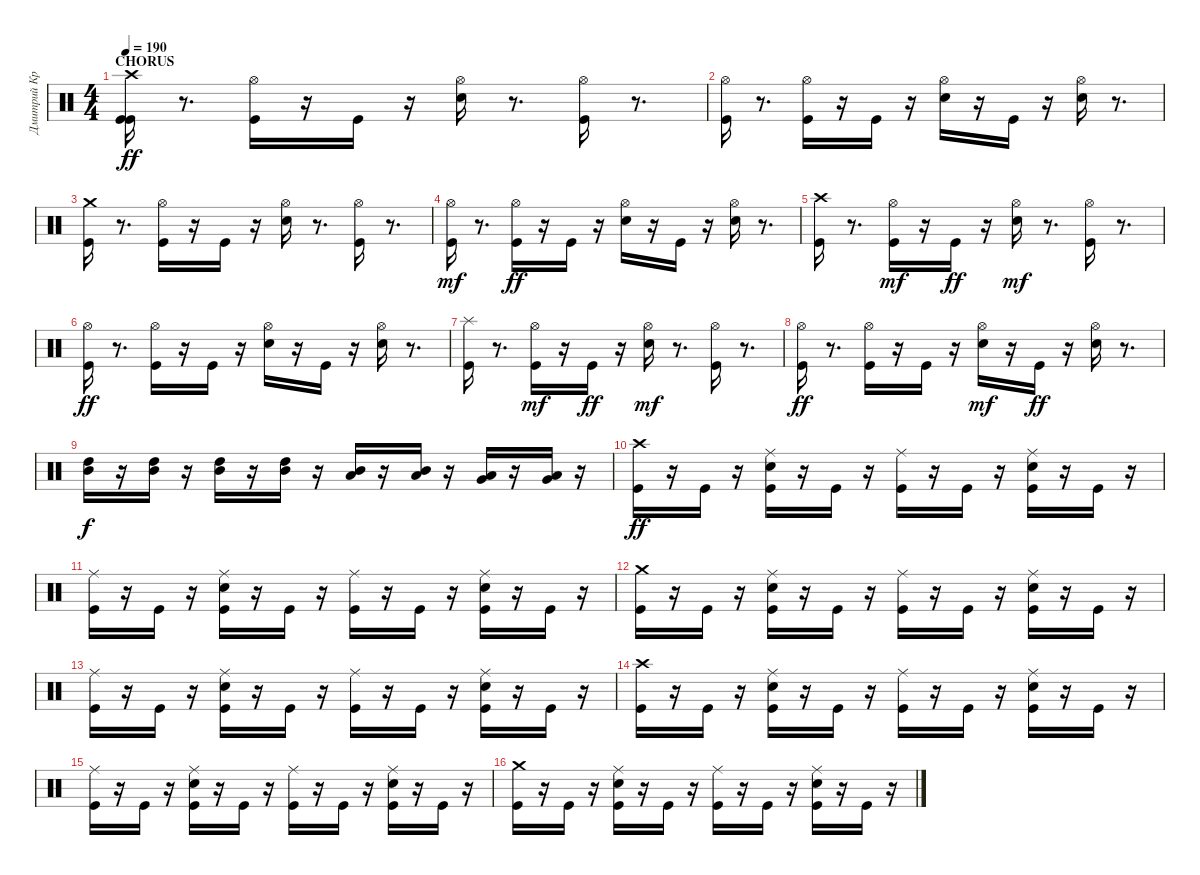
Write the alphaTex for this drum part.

\track ("Дмитрий Кривенков" "Дмитрий Кр") {instrument percussion}
\staff {score}
\articulation defaults
\ts (4 4)
\section ("" "CHORUS")
\tempo 190
\clef neutral
\ks c
("Kick (hit)" "Crash high (hit)" "Kick (hit)").16{dy ff} r.8{d} ("Hi-Hat (open)" "Kick (hit)").16 r.16 "Kick (hit)".16 r.16 ("Hi-Hat (open)" "Snare (hit) 2").16 r.8{d} ("Hi-Hat (open)" "Kick (hit)").16 r.8{d} |
("Hi-Hat (open)" "Kick (hit)").16 r.8{d} ("Hi-Hat (open)" "Kick (hit)").16 r.16 "Kick (hit)".16 r.16 ("Hi-Hat (open)" "Snare (hit) 2").16 r.16 "Kick (hit)".16 r.16 ("Hi-Hat (open)" "Snare (hit) 2").16 r.8{d} |
("Kick (hit)" "Crash medium (hit)").16 r.8{d} ("Hi-Hat (open)" "Kick (hit)").16 r.16 "Kick (hit)".16 r.16 ("Hi-Hat (open)" "Snare (hit) 2").16 r.8{d} ("Hi-Hat (open)" "Kick (hit)").16 r.8{d} |
("Kick (hit)" "Hi-Hat (open)").16{dy mf} r.8{d} ("Hi-Hat (open)" "Kick (hit)").16{dy ff} r.16 "Kick (hit)".16 r.16 ("Hi-Hat (open)" "Snare (hit) 2").16 r.16 "Kick (hit)".16 r.16 ("Hi-Hat (open)" "Snare (hit) 2").16 r.8{d} |
("Crash high (hit)" "Kick (hit)").16 r.8{d} ("Kick (hit)" "Hi-Hat (open)").16{dy mf} r.16 "Kick (hit)".16{dy ff} r.16 ("Snare (hit) 2" "Hi-Hat (open)").16{dy mf} r.8{d} ("Kick (hit)" "Hi-Hat (open)").16 r.8{d} |
("Hi-Hat (open)" "Kick (hit)").16{dy ff} r.8{d} ("Hi-Hat (open)" "Kick (hit)").16 r.16 "Kick (hit)".16 r.16 ("Hi-Hat (open)" "Snare (hit) 2").16 r.16 "Kick (hit)".16 r.16 ("Hi-Hat (open)" "Snare (hit) 2").16 r.8{d} |
("Splash (hit)" "Kick (hit)").16 r.8{d} ("Kick (hit)" "Hi-Hat (open)").16{dy mf} r.16 "Kick (hit)".16{dy ff} r.16 ("Snare (hit) 2" "Hi-Hat (open)").16{dy mf} r.8{d} ("Kick (hit)" "Hi-Hat (open)").16 r.8{d} |
("Hi-Hat (open)" "Kick (hit)").16{dy ff} r.8{d} ("Hi-Hat (open)" "Kick (hit)").16 r.16 "Kick (hit)".16 r.16 ("Snare (hit) 2" "Hi-Hat (open)").16{dy mf} r.16 "Kick (hit)".16{dy ff} r.16 ("Hi-Hat (open)" "Snare (hit) 2").16 r.8{d} |
("Mid Tom (hit)" "High Tom (hit)").16{dy f} r.16 ("Mid Tom (hit)" "High Tom (hit)").16 r.16 ("Mid Tom (hit)" "High Tom (hit)").16 r.16 ("Mid Tom (hit)" "High Tom (hit)").16 r.16 ("Low Tom (hit)" "Mid Tom (hit)").16 r.16 ("Low Tom (hit)" "Mid Tom (hit)").16 r.16 ("Very Low Tom (hit)" "Low Tom (hit)").16 r.16 ("Very Low Tom (hit)" "Low Tom (hit)").16 r.16 |
("Crash high (hit)" "Kick (hit)").16{dy ff} r.16 "Kick (hit)".16 r.16 ("Kick (hit)" "Snare (hit) 2" "Ride (middle)").16 r.16 "Kick (hit)".16 r.16 ("Ride (middle)" "Kick (hit)").16 r.16 "Kick (hit)".16 r.16 ("Ride (middle)" "Kick (hit)" "Snare (hit) 2").16 r.16 "Kick (hit)".16 r.16 |
("Ride (middle)" "Kick (hit)").16 r.16 "Kick (hit)".16 r.16 ("Ride (middle)" "Kick (hit)" "Snare (hit) 2").16 r.16 "Kick (hit)".16 r.16 ("Ride (middle)" "Kick (hit)").16 r.16 "Kick (hit)".16 r.16 ("Ride (middle)" "Kick (hit)" "Snare (hit) 2").16 r.16 "Kick (hit)".16 r.16 |
("Kick (hit)" "Crash medium (hit)").16 r.16 "Kick (hit)".16 r.16 ("Snare (hit) 2" "Kick (hit)" "Ride (middle)").16 r.16 "Kick (hit)".16 r.16 ("Kick (hit)" "Ride (middle)").16 r.16 "Kick (hit)".16 r.16 ("Snare (hit) 2" "Kick (hit)" "Ride (middle)").16 r.16 "Kick (hit)".16 r.16 |
("Kick (hit)" "Ride (middle)").16 r.16 "Kick (hit)".16 r.16 ("Snare (hit) 2" "Kick (hit)" "Ride (middle)").16 r.16 "Kick (hit)".16 r.16 ("Kick (hit)" "Ride (middle)").16 r.16 "Kick (hit)".16 r.16 ("Snare (hit) 2" "Kick (hit)" "Ride (middle)").16 r.16 "Kick (hit)".16 r.16 |
("Crash high (hit)" "Kick (hit)").16 r.16 "Kick (hit)".16 r.16 ("Kick (hit)" "Snare (hit) 2" "Ride (middle)").16 r.16 "Kick (hit)".16 r.16 ("Ride (middle)" "Kick (hit)").16 r.16 "Kick (hit)".16 r.16 ("Ride (middle)" "Kick (hit)" "Snare (hit) 2").16 r.16 "Kick (hit)".16 r.16 |
("Ride (middle)" "Kick (hit)").16 r.16 "Kick (hit)".16 r.16 ("Ride (middle)" "Kick (hit)" "Snare (hit) 2").16 r.16 "Kick (hit)".16 r.16 ("Ride (middle)" "Kick (hit)").16 r.16 "Kick (hit)".16 r.16 ("Ride (middle)" "Kick (hit)" "Snare (hit) 2").16 r.16 "Kick (hit)".16 r.16 |
("Kick (hit)" "Crash medium (hit)").16 r.16 "Kick (hit)".16 r.16 ("Snare (hit) 2" "Kick (hit)" "Ride (middle)").16 r.16 "Kick (hit)".16 r.16 ("Kick (hit)" "Ride (middle)").16 r.16 "Kick (hit)".16 r.16 ("Snare (hit) 2" "Kick (hit)" "Ride (middle)").16 r.16 "Kick (hit)".16 r.16
